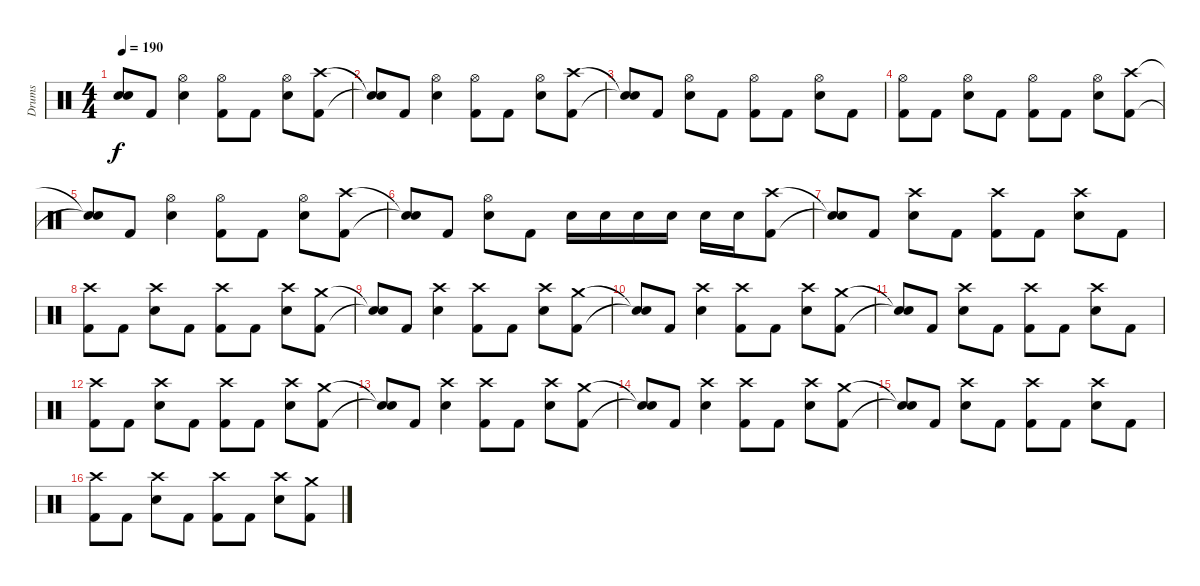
\track ("Drums" "Drums") {instrument percussion}
\staff {score}
\articulation defaults
\ts (4 4)
\tempo 190
\clef neutral
\ks c
("Snare (hit)"{t} "Snare (hit)"{t}).8{dy f} "Kick (hit) 2".8 ("Hi-Hat (open)" "Electric Snare (hit)").4 ("Hi-Hat (open)" "Kick (hit) 2").8 "Kick (hit) 2".8 ("Hi-Hat (open)" "Electric Snare (hit)").8 ("Crash high (hit)" "Kick (hit) 2").8 |
("Snare (hit)"{t} "Snare (hit)"{t}).8 "Kick (hit) 2".8 ("Hi-Hat (open)" "Electric Snare (hit)").4 ("Hi-Hat (open)" "Kick (hit) 2").8 "Kick (hit) 2".8 ("Hi-Hat (open)" "Electric Snare (hit)").8 ("Crash high (hit)" "Kick (hit) 2").8 |
("Snare (hit)"{t} "Snare (hit)"{t}).8 "Kick (hit) 2".8 ("Hi-Hat (open)" "Electric Snare (hit)").8 "Kick (hit) 2".8 ("Hi-Hat (open)" "Kick (hit) 2").8 "Kick (hit) 2".8 ("Hi-Hat (open)" "Electric Snare (hit)").8 "Kick (hit) 2".8 |
("Hi-Hat (open)" "Kick (hit) 2").8 "Kick (hit) 2".8 ("Hi-Hat (open)" "Electric Snare (hit)").8 "Kick (hit) 2".8 ("Hi-Hat (open)" "Kick (hit) 2").8 "Kick (hit) 2".8 ("Hi-Hat (open)" "Electric Snare (hit)").8 ("Crash high (hit)" "Kick (hit) 2").8 |
("Snare (hit)"{t} "Snare (hit)"{t}).8 "Kick (hit) 2".8 ("Hi-Hat (open)" "Electric Snare (hit)").4 ("Hi-Hat (open)" "Kick (hit) 2").8 "Kick (hit) 2".8 ("Hi-Hat (open)" "Electric Snare (hit)").8 ("Crash high (hit)" "Kick (hit) 2").8 |
("Snare (hit)"{t} "Snare (hit)"{t}).8 "Kick (hit) 2".8 ("Hi-Hat (open)" "Electric Snare (hit)").8 "Kick (hit) 2".8 "Electric Snare (hit)".16 "Electric Snare (hit)".16 "Electric Snare (hit)".16 "Electric Snare (hit)".16 "Electric Snare (hit)".16 "Electric Snare (hit)".16 ("Crash high (hit)" "Kick (hit) 2").8 |
("Snare (hit)"{t} "Snare (hit)"{t}).8 "Kick (hit) 2".8 ("Crash high (hit)" "Electric Snare (hit)").8 "Kick (hit) 2".8 ("Crash high (hit)" "Kick (hit) 2").8 "Kick (hit) 2".8 ("Crash high (hit)" "Electric Snare (hit)").8 "Kick (hit) 2".8 |
("Crash high (hit)" "Kick (hit) 2").8 "Kick (hit) 2".8 ("Crash high (hit)" "Electric Snare (hit)").8 "Kick (hit) 2".8 ("Crash high (hit)" "Kick (hit) 2").8 "Kick (hit) 2".8 ("Crash high (hit)" "Electric Snare (hit)").8 ("Crash medium (hit)" "Kick (hit) 2").8 |
("Snare (hit)"{t} "Snare (hit)"{t}).8 "Kick (hit) 2".8 ("Crash high (hit)" "Electric Snare (hit)").4 ("Crash high (hit)" "Kick (hit) 2").8 "Kick (hit) 2".8 ("Crash high (hit)" "Electric Snare (hit)").8 ("Crash medium (hit)" "Kick (hit) 2").8 |
("Snare (hit)"{t} "Snare (hit)"{t}).8 "Kick (hit) 2".8 ("Crash high (hit)" "Electric Snare (hit)").4 ("Crash high (hit)" "Kick (hit) 2").8 "Kick (hit) 2".8 ("Crash high (hit)" "Electric Snare (hit)").8 ("Crash medium (hit)" "Kick (hit) 2").8 |
("Snare (hit)"{t} "Snare (hit)"{t}).8 "Kick (hit) 2".8 ("Crash high (hit)" "Electric Snare (hit)").8 "Kick (hit) 2".8 ("Crash high (hit)" "Kick (hit) 2").8 "Kick (hit) 2".8 ("Crash high (hit)" "Electric Snare (hit)").8 "Kick (hit) 2".8 |
("Crash high (hit)" "Kick (hit) 2").8 "Kick (hit) 2".8 ("Crash high (hit)" "Electric Snare (hit)").8 "Kick (hit) 2".8 ("Crash high (hit)" "Kick (hit) 2").8 "Kick (hit) 2".8 ("Crash high (hit)" "Electric Snare (hit)").8 ("Crash medium (hit)" "Kick (hit) 2").8 |
("Snare (hit)"{t} "Snare (hit)"{t}).8 "Kick (hit) 2".8 ("Crash high (hit)" "Electric Snare (hit)").4 ("Crash high (hit)" "Kick (hit) 2").8 "Kick (hit) 2".8 ("Crash high (hit)" "Electric Snare (hit)").8 ("Crash medium (hit)" "Kick (hit) 2").8 |
("Snare (hit)"{t} "Snare (hit)"{t}).8 "Kick (hit) 2".8 ("Crash high (hit)" "Electric Snare (hit)").4 ("Crash high (hit)" "Kick (hit) 2").8 "Kick (hit) 2".8 ("Crash high (hit)" "Electric Snare (hit)").8 ("Crash medium (hit)" "Kick (hit) 2").8 |
("Snare (hit)"{t} "Snare (hit)"{t}).8 "Kick (hit) 2".8 ("Crash high (hit)" "Electric Snare (hit)").8 "Kick (hit) 2".8 ("Crash high (hit)" "Kick (hit) 2").8 "Kick (hit) 2".8 ("Crash high (hit)" "Electric Snare (hit)").8 "Kick (hit) 2".8 |
("Crash high (hit)" "Kick (hit) 2").8 "Kick (hit) 2".8 ("Crash high (hit)" "Electric Snare (hit)").8 "Kick (hit) 2".8 ("Crash high (hit)" "Kick (hit) 2").8 "Kick (hit) 2".8 ("Crash high (hit)" "Electric Snare (hit)").8 ("Crash medium (hit)" "Kick (hit) 2").8
